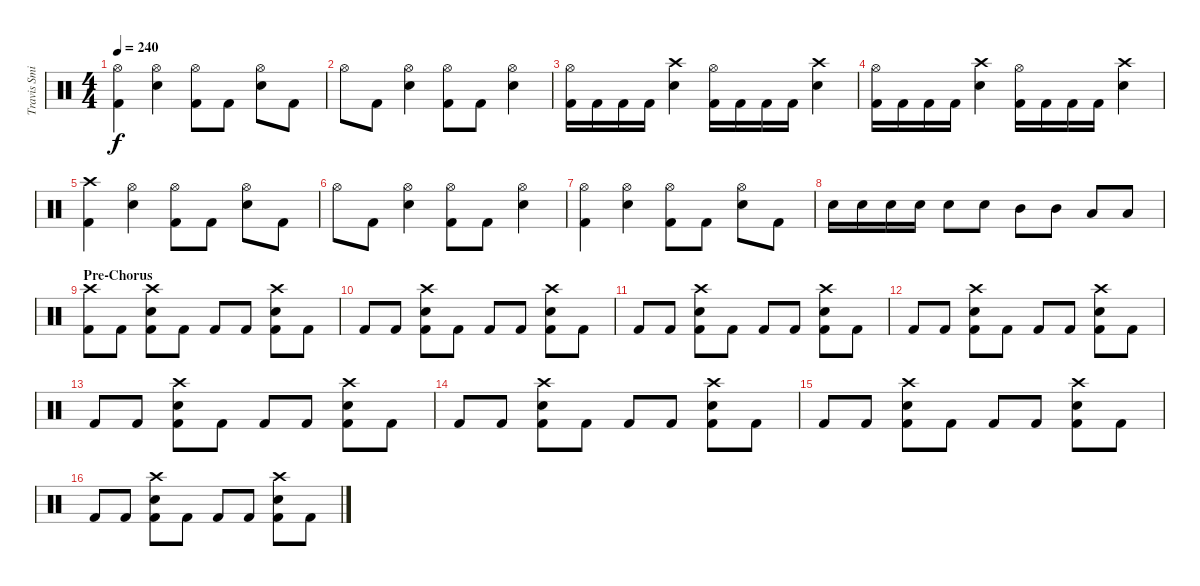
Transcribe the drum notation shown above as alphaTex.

\track ("Travis Smith (Drums)" "Travis Smi") {instrument percussion}
\staff {score}
\articulation defaults
\ts (4 4)
\tempo 240
\clef neutral
\ks c
("Kick (hit) 2" "Hi-Hat (open)").4{dy f} ("Snare (hit) 2" "Hi-Hat (open)").4 ("Kick (hit) 2" "Hi-Hat (open)").8 "Kick (hit) 2".8 ("Snare (hit) 2" "Hi-Hat (open)").8 "Kick (hit) 2".8 |
"Hi-Hat (open)".8 "Kick (hit) 2".8 ("Snare (hit) 2" "Hi-Hat (open)").4 ("Kick (hit) 2" "Hi-Hat (open)").8 "Kick (hit) 2".8 ("Snare (hit) 2" "Hi-Hat (open)").4 |
("Kick (hit) 2" "Hi-Hat (open)").16 "Kick (hit) 2".16 "Kick (hit) 2".16 "Kick (hit) 2".16 ("Snare (hit) 2" "Crash high (hit)").4 ("Kick (hit) 2" "Hi-Hat (open)").16 "Kick (hit) 2".16 "Kick (hit) 2".16 "Kick (hit) 2".16 ("Snare (hit) 2" "Crash high (hit)").4 |
("Kick (hit) 2" "Hi-Hat (open)").16 "Kick (hit) 2".16 "Kick (hit) 2".16 "Kick (hit) 2".16 ("Snare (hit) 2" "Crash high (hit)").4 ("Kick (hit) 2" "Hi-Hat (open)").16 "Kick (hit) 2".16 "Kick (hit) 2".16 "Kick (hit) 2".16 ("Snare (hit) 2" "Crash high (hit)").4 |
("Kick (hit) 2" "Crash high (hit)").4 ("Snare (hit) 2" "Hi-Hat (open)").4 ("Kick (hit) 2" "Hi-Hat (open)").8 "Kick (hit) 2".8 ("Snare (hit) 2" "Hi-Hat (open)").8 "Kick (hit) 2".8 |
"Hi-Hat (open)".8 "Kick (hit) 2".8 ("Snare (hit) 2" "Hi-Hat (open)").4 ("Kick (hit) 2" "Hi-Hat (open)").8 "Kick (hit) 2".8 ("Snare (hit) 2" "Hi-Hat (open)").4 |
("Kick (hit) 2" "Hi-Hat (open)").4 ("Snare (hit) 2" "Hi-Hat (open)").4 ("Kick (hit) 2" "Hi-Hat (open)").8 "Kick (hit) 2".8 ("Snare (hit) 2" "Hi-Hat (open)").8 "Kick (hit) 2".8 |
"Snare (hit) 2".16 "Snare (hit) 2".16 "Snare (hit) 2".16 "Snare (hit) 2".16 "Snare (hit) 2".8 "Snare (hit) 2".8 "Mid Tom (hit)".8 "Mid Tom (hit)".8 "Low Tom (hit)".8 "Low Tom (hit)".8 |
\section ("" "Pre-Chorus")
("Kick (hit) 2" "Crash high (hit)").8 "Kick (hit) 2".8 ("Kick (hit) 2" "Snare (hit) 2" "Crash high (hit)").8 "Kick (hit) 2".8 "Kick (hit) 2".8 "Kick (hit) 2".8 ("Kick (hit) 2" "Snare (hit) 2" "Crash high (hit)").8 "Kick (hit) 2".8 |
"Kick (hit) 2".8 "Kick (hit) 2".8 ("Kick (hit) 2" "Snare (hit) 2" "Crash high (hit)").8 "Kick (hit) 2".8 "Kick (hit) 2".8 "Kick (hit) 2".8 ("Kick (hit) 2" "Snare (hit) 2" "Crash high (hit)").8 "Kick (hit) 2".8 |
"Kick (hit) 2".8 "Kick (hit) 2".8 ("Kick (hit) 2" "Snare (hit) 2" "Crash high (hit)").8 "Kick (hit) 2".8 "Kick (hit) 2".8 "Kick (hit) 2".8 ("Kick (hit) 2" "Snare (hit) 2" "Crash high (hit)").8 "Kick (hit) 2".8 |
"Kick (hit) 2".8 "Kick (hit) 2".8 ("Kick (hit) 2" "Snare (hit) 2" "Crash high (hit)").8 "Kick (hit) 2".8 "Kick (hit) 2".8 "Kick (hit) 2".8 ("Kick (hit) 2" "Snare (hit) 2" "Crash high (hit)").8 "Kick (hit) 2".8 |
"Kick (hit) 2".8 "Kick (hit) 2".8 ("Kick (hit) 2" "Snare (hit) 2" "Crash high (hit)").8 "Kick (hit) 2".8 "Kick (hit) 2".8 "Kick (hit) 2".8 ("Kick (hit) 2" "Snare (hit) 2" "Crash high (hit)").8 "Kick (hit) 2".8 |
"Kick (hit) 2".8 "Kick (hit) 2".8 ("Kick (hit) 2" "Snare (hit) 2" "Crash high (hit)").8 "Kick (hit) 2".8 "Kick (hit) 2".8 "Kick (hit) 2".8 ("Kick (hit) 2" "Snare (hit) 2" "Crash high (hit)").8 "Kick (hit) 2".8 |
"Kick (hit) 2".8 "Kick (hit) 2".8 ("Kick (hit) 2" "Snare (hit) 2" "Crash high (hit)").8 "Kick (hit) 2".8 "Kick (hit) 2".8 "Kick (hit) 2".8 ("Kick (hit) 2" "Snare (hit) 2" "Crash high (hit)").8 "Kick (hit) 2".8 |
"Kick (hit) 2".8 "Kick (hit) 2".8 ("Kick (hit) 2" "Snare (hit) 2" "Crash high (hit)").8 "Kick (hit) 2".8 "Kick (hit) 2".8 "Kick (hit) 2".8 ("Kick (hit) 2" "Snare (hit) 2" "Crash high (hit)").8 "Kick (hit) 2".8
